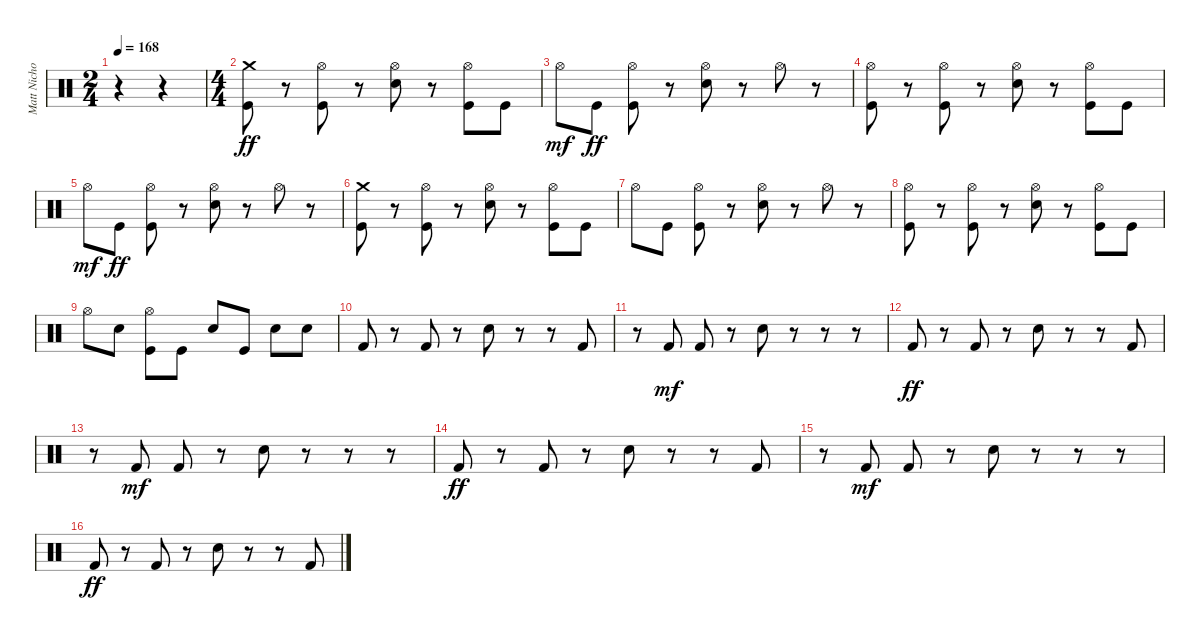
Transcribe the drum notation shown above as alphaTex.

\track ("Matt Nicholls" "Matt Nicho") {instrument percussion}
\staff {score}
\articulation defaults
\ts (2 4)
\tempo 168
\clef neutral
\ks c
r.4{dy ff} r.4 |
\ts (4 4)
("Kick (hit)" "Crash medium (hit)").8 r.8 ("Kick (hit)" "Hi-Hat (open)").8 r.8 ("Snare (hit) 2" "Hi-Hat (open)").8 r.8 ("Kick (hit)" "Hi-Hat (open)").8 "Kick (hit)".8 |
"Hi-Hat (open)".8{dy mf} "Kick (hit)".8{dy ff} ("Kick (hit)" "Hi-Hat (open)").8 r.8 ("Hi-Hat (open)" "Snare (hit) 2").8 r.8 "Hi-Hat (open)".8 r.8 |
("Kick (hit)" "Hi-Hat (open)").8 r.8 ("Kick (hit)" "Hi-Hat (open)").8 r.8 ("Snare (hit) 2" "Hi-Hat (open)").8 r.8 ("Kick (hit)" "Hi-Hat (open)").8 "Kick (hit)".8 |
"Hi-Hat (open)".8{dy mf} "Kick (hit)".8{dy ff} ("Kick (hit)" "Hi-Hat (open)").8 r.8 ("Hi-Hat (open)" "Snare (hit) 2").8 r.8 "Hi-Hat (open)".8 r.8 |
("Kick (hit)" "Crash medium (hit)").8 r.8 ("Kick (hit)" "Hi-Hat (open)").8 r.8 ("Snare (hit) 2" "Hi-Hat (open)").8 r.8 ("Kick (hit)" "Hi-Hat (open)").8 "Kick (hit)".8 |
"Hi-Hat (open)".8 "Kick (hit)".8 ("Kick (hit)" "Hi-Hat (open)").8 r.8 ("Hi-Hat (open)" "Snare (hit) 2").8 r.8 "Hi-Hat (open)".8 r.8 |
("Kick (hit)" "Hi-Hat (open)").8 r.8 ("Kick (hit)" "Hi-Hat (open)").8 r.8 ("Snare (hit) 2" "Hi-Hat (open)").8 r.8 ("Kick (hit)" "Hi-Hat (open)").8 "Kick (hit)".8 |
"Hi-Hat (open)".8 "Snare (hit) 2".8 ("Kick (hit)" "Hi-Hat (open)").8 "Kick (hit)".8 "Snare (hit) 2".8 "Kick (hit)".8 "Snare (hit) 2".8 "Snare (hit) 2".8 |
"Kick (hit) 2".8 r.8 "Kick (hit) 2".8 r.8 "Electric Snare (hit)".8 r.8 r.8 "Kick (hit) 2".8 |
r.8 "Kick (hit) 2".8{dy mf} "Kick (hit) 2".8 r.8 "Electric Snare (hit)".8 r.8 r.8 r.8 |
"Kick (hit) 2".8{dy ff} r.8 "Kick (hit) 2".8 r.8 "Electric Snare (hit)".8 r.8 r.8 "Kick (hit) 2".8 |
r.8 "Kick (hit) 2".8{dy mf} "Kick (hit) 2".8 r.8 "Electric Snare (hit)".8 r.8 r.8 r.8 |
"Kick (hit) 2".8{dy ff} r.8 "Kick (hit) 2".8 r.8 "Electric Snare (hit)".8 r.8 r.8 "Kick (hit) 2".8 |
r.8 "Kick (hit) 2".8{dy mf} "Kick (hit) 2".8 r.8 "Electric Snare (hit)".8 r.8 r.8 r.8 |
"Kick (hit) 2".8{dy ff} r.8 "Kick (hit) 2".8 r.8 "Electric Snare (hit)".8 r.8 r.8 "Kick (hit) 2".8
